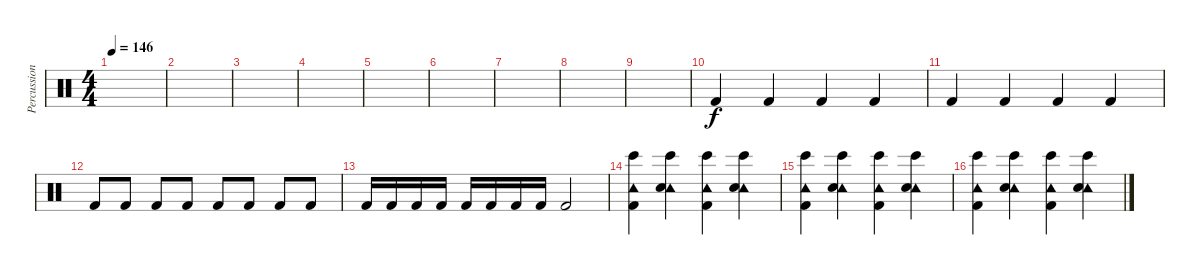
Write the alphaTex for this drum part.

\track ("Percussion" "Percussion") {instrument percussion}
\staff {score}
\articulation defaults
\ts (4 4)
\tempo 146
\clef neutral
\ks c
|
|
|
|
|
|
|
|
|
"Kick (hit) 2".4 "Kick (hit) 2".4 "Kick (hit) 2".4 "Kick (hit) 2".4 |
"Kick (hit) 2".4 "Kick (hit) 2".4 "Kick (hit) 2".4 "Kick (hit) 2".4 |
"Kick (hit) 2".8 "Kick (hit) 2".8 "Kick (hit) 2".8 "Kick (hit) 2".8 "Kick (hit) 2".8 "Kick (hit) 2".8 "Kick (hit) 2".8 "Kick (hit) 2".8 |
"Kick (hit) 2".16 "Kick (hit) 2".16 "Kick (hit) 2".16 "Kick (hit) 2".16 "Kick (hit) 2".16 "Kick (hit) 2".16 "Kick (hit) 2".16 "Kick (hit) 2".16 "Kick (hit) 2".2 |
("Tambourine (hit)" "Kick (hit) 2" "Bongo High (hit)").4 ("Tambourine (hit)" "Snare (hit) 2" "Bongo High (hit)").4 ("Tambourine (hit)" "Kick (hit) 2" "Bongo High (hit)").4 ("Tambourine (hit)" "Snare (hit) 2" "Bongo High (hit)").4 |
("Tambourine (hit)" "Kick (hit) 2" "Bongo High (hit)").4 ("Tambourine (hit)" "Snare (hit) 2" "Bongo High (hit)").4 ("Tambourine (hit)" "Kick (hit) 2" "Bongo High (hit)").4 ("Tambourine (hit)" "Snare (hit) 2" "Bongo High (hit)").4 |
("Tambourine (hit)" "Kick (hit) 2" "Bongo High (hit)").4 ("Tambourine (hit)" "Snare (hit) 2" "Bongo High (hit)").4 ("Tambourine (hit)" "Kick (hit) 2" "Bongo High (hit)").4 ("Tambourine (hit)" "Snare (hit) 2" "Bongo High (hit)").4
